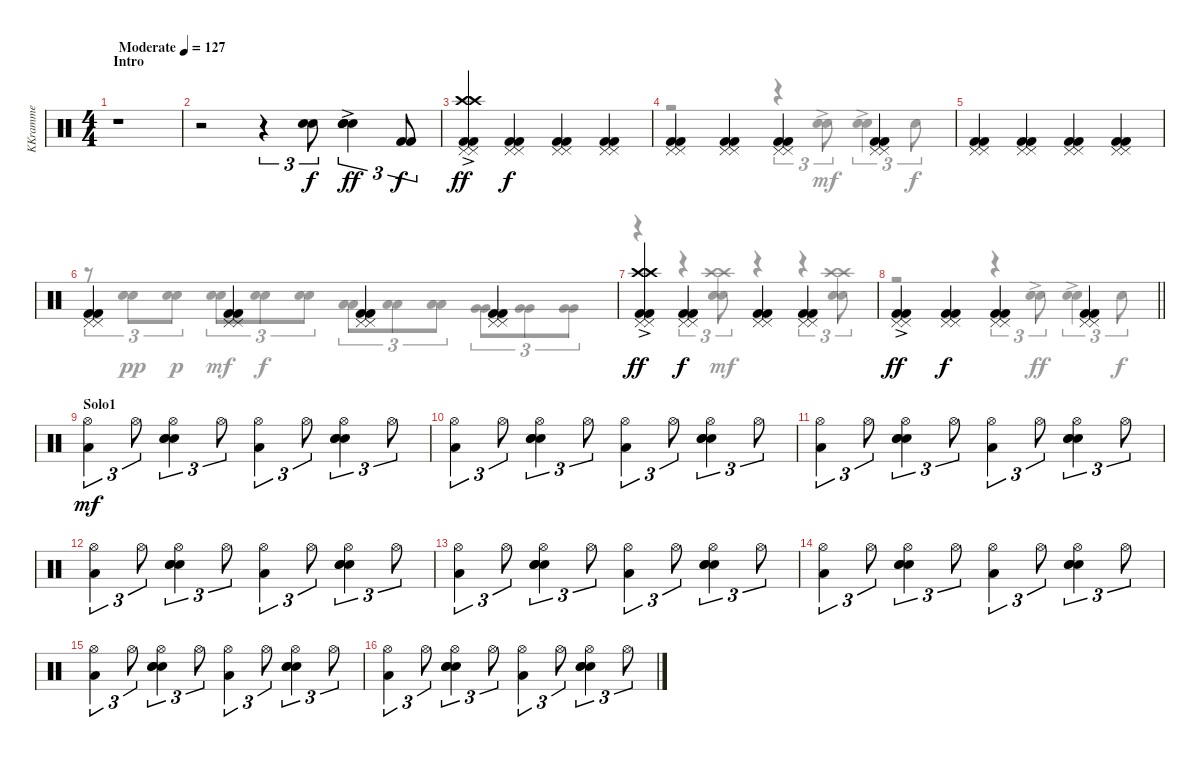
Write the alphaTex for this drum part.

\track ("KKramme" "KKramme") {instrument percussion}
\staff {score}
\articulation defaults
\voice
\ts (4 4)
\section ("" "Intro")
\tempo (127 "Moderate")
\clef neutral
\ks c
r.1{dy f} |
r.2 r.4{tu (3 2)} ("Snare (hit) 2" "Snare (hit) 2").8{tu (3 2)} ("Snare (hit) 2"{ac} "Snare (hit) 2"{ac} "Snare (hit) 2"{ac} "Snare (hit) 2"{ac}).4{tu (3 2) dy ff} ("Kick (hit) 2" "Kick (hit) 2").8{tu (3 2) dy f} |
("Crash high (hit)"{ac} "Crash high (hit)"{ac} "Pedal Hi-Hat (hit)"{ac} "Pedal Hi-Hat (hit)"{ac} "Kick (hit) 2"{ac} "Kick (hit) 2"{ac}).4{dy ff} ("Pedal Hi-Hat (hit)" "Pedal Hi-Hat (hit)" "Kick (hit) 2" "Kick (hit) 2").4{dy f} ("Pedal Hi-Hat (hit)" "Pedal Hi-Hat (hit)" "Kick (hit) 2" "Kick (hit) 2").4 ("Pedal Hi-Hat (hit)" "Pedal Hi-Hat (hit)" "Kick (hit) 2" "Kick (hit) 2").4 |
("Pedal Hi-Hat (hit)" "Pedal Hi-Hat (hit)" "Kick (hit) 2" "Kick (hit) 2").4 ("Pedal Hi-Hat (hit)" "Pedal Hi-Hat (hit)" "Kick (hit) 2" "Kick (hit) 2").4 ("Pedal Hi-Hat (hit)" "Pedal Hi-Hat (hit)" "Kick (hit) 2" "Kick (hit) 2").4 ("Pedal Hi-Hat (hit)" "Pedal Hi-Hat (hit)" "Kick (hit) 2" "Kick (hit) 2").4 |
("Pedal Hi-Hat (hit)" "Pedal Hi-Hat (hit)" "Kick (hit) 2" "Kick (hit) 2").4 ("Pedal Hi-Hat (hit)" "Pedal Hi-Hat (hit)" "Kick (hit) 2" "Kick (hit) 2").4 ("Pedal Hi-Hat (hit)" "Pedal Hi-Hat (hit)" "Kick (hit) 2" "Kick (hit) 2").4 ("Pedal Hi-Hat (hit)" "Pedal Hi-Hat (hit)" "Kick (hit) 2" "Kick (hit) 2").4 |
("Pedal Hi-Hat (hit)" "Pedal Hi-Hat (hit)" "Kick (hit) 2" "Kick (hit) 2").4 ("Pedal Hi-Hat (hit)" "Pedal Hi-Hat (hit)" "Kick (hit) 2" "Kick (hit) 2").4 ("Pedal Hi-Hat (hit)" "Pedal Hi-Hat (hit)" "Kick (hit) 2" "Kick (hit) 2").4 ("Pedal Hi-Hat (hit)" "Pedal Hi-Hat (hit)" "Kick (hit) 2" "Kick (hit) 2").4 |
("Crash high (hit)"{ac} "Crash high (hit)"{ac} "Pedal Hi-Hat (hit)"{ac} "Pedal Hi-Hat (hit)"{ac} "Kick (hit) 2"{ac} "Kick (hit) 2"{ac}).4{dy ff} ("Pedal Hi-Hat (hit)" "Pedal Hi-Hat (hit)" "Kick (hit) 2" "Kick (hit) 2").4{dy f} ("Pedal Hi-Hat (hit)" "Pedal Hi-Hat (hit)" "Kick (hit) 2" "Kick (hit) 2").4 ("Pedal Hi-Hat (hit)" "Pedal Hi-Hat (hit)" "Kick (hit) 2" "Kick (hit) 2").4 |
\barLineRight lightlight
("Pedal Hi-Hat (hit)"{ac} "Pedal Hi-Hat (hit)"{ac} "Kick (hit) 2"{ac} "Kick (hit) 2"{ac}).4{dy ff} ("Pedal Hi-Hat (hit)" "Pedal Hi-Hat (hit)" "Kick (hit) 2" "Kick (hit) 2").4{dy f} ("Pedal Hi-Hat (hit)" "Pedal Hi-Hat (hit)" "Kick (hit) 2" "Kick (hit) 2").4 ("Pedal Hi-Hat (hit)" "Pedal Hi-Hat (hit)" "Kick (hit) 2" "Kick (hit) 2").4 |
\section ("" "Solo1")
("Low Tom (hit)" "Hi-Hat (open)").4{tu (3 2) dy mf} "Hi-Hat (open)".8{tu (3 2)} ("Snare (hit) 2" "Snare (hit) 2" "Snare (hit) 2" "Hi-Hat (open)").4{tu (3 2)} "Hi-Hat (open)".8{tu (3 2)} ("Low Tom (hit)" "Hi-Hat (open)").4{tu (3 2)} "Hi-Hat (open)".8{tu (3 2)} ("Snare (hit) 2" "Snare (hit) 2" "Snare (hit) 2" "Hi-Hat (open)").4{tu (3 2)} "Hi-Hat (open)".8{tu (3 2)} |
("Low Tom (hit)" "Hi-Hat (open)").4{tu (3 2)} "Hi-Hat (open)".8{tu (3 2)} ("Snare (hit) 2" "Snare (hit) 2" "Snare (hit) 2" "Hi-Hat (open)").4{tu (3 2)} "Hi-Hat (open)".8{tu (3 2)} ("Low Tom (hit)" "Hi-Hat (open)").4{tu (3 2)} "Hi-Hat (open)".8{tu (3 2)} ("Snare (hit) 2" "Snare (hit) 2" "Snare (hit) 2" "Hi-Hat (open)").4{tu (3 2)} "Hi-Hat (open)".8{tu (3 2)} |
("Low Tom (hit)" "Hi-Hat (open)").4{tu (3 2)} "Hi-Hat (open)".8{tu (3 2)} ("Snare (hit) 2" "Snare (hit) 2" "Snare (hit) 2" "Hi-Hat (open)").4{tu (3 2)} "Hi-Hat (open)".8{tu (3 2)} ("Low Tom (hit)" "Hi-Hat (open)").4{tu (3 2)} "Hi-Hat (open)".8{tu (3 2)} ("Snare (hit) 2" "Snare (hit) 2" "Snare (hit) 2" "Hi-Hat (open)").4{tu (3 2)} "Hi-Hat (open)".8{tu (3 2)} |
("Low Tom (hit)" "Hi-Hat (open)").4{tu (3 2)} "Hi-Hat (open)".8{tu (3 2)} ("Snare (hit) 2" "Snare (hit) 2" "Snare (hit) 2" "Hi-Hat (open)").4{tu (3 2)} "Hi-Hat (open)".8{tu (3 2)} ("Low Tom (hit)" "Hi-Hat (open)").4{tu (3 2)} "Hi-Hat (open)".8{tu (3 2)} ("Snare (hit) 2" "Snare (hit) 2" "Snare (hit) 2" "Hi-Hat (open)").4{tu (3 2)} "Hi-Hat (open)".8{tu (3 2)} |
("Low Tom (hit)" "Hi-Hat (open)").4{tu (3 2)} "Hi-Hat (open)".8{tu (3 2)} ("Snare (hit) 2" "Snare (hit) 2" "Snare (hit) 2" "Hi-Hat (open)").4{tu (3 2)} "Hi-Hat (open)".8{tu (3 2)} ("Low Tom (hit)" "Hi-Hat (open)").4{tu (3 2)} "Hi-Hat (open)".8{tu (3 2)} ("Snare (hit) 2" "Snare (hit) 2" "Snare (hit) 2" "Hi-Hat (open)").4{tu (3 2)} "Hi-Hat (open)".8{tu (3 2)} |
("Low Tom (hit)" "Hi-Hat (open)").4{tu (3 2)} "Hi-Hat (open)".8{tu (3 2)} ("Snare (hit) 2" "Snare (hit) 2" "Snare (hit) 2" "Hi-Hat (open)").4{tu (3 2)} "Hi-Hat (open)".8{tu (3 2)} ("Low Tom (hit)" "Hi-Hat (open)").4{tu (3 2)} "Hi-Hat (open)".8{tu (3 2)} ("Snare (hit) 2" "Snare (hit) 2" "Snare (hit) 2" "Hi-Hat (open)").4{tu (3 2)} "Hi-Hat (open)".8{tu (3 2)} |
("Low Tom (hit)" "Hi-Hat (open)").4{tu (3 2)} "Hi-Hat (open)".8{tu (3 2)} ("Snare (hit) 2" "Snare (hit) 2" "Snare (hit) 2" "Hi-Hat (open)").4{tu (3 2)} "Hi-Hat (open)".8{tu (3 2)} ("Low Tom (hit)" "Hi-Hat (open)").4{tu (3 2)} "Hi-Hat (open)".8{tu (3 2)} ("Snare (hit) 2" "Snare (hit) 2" "Snare (hit) 2" "Hi-Hat (open)").4{tu (3 2)} "Hi-Hat (open)".8{tu (3 2)} |
("Low Tom (hit)" "Hi-Hat (open)").4{tu (3 2)} "Hi-Hat (open)".8{tu (3 2)} ("Snare (hit) 2" "Snare (hit) 2" "Snare (hit) 2" "Hi-Hat (open)").4{tu (3 2)} "Hi-Hat (open)".8{tu (3 2)} ("Low Tom (hit)" "Hi-Hat (open)").4{tu (3 2)} "Hi-Hat (open)".8{tu (3 2)} ("Snare (hit) 2" "Snare (hit) 2" "Snare (hit) 2" "Hi-Hat (open)").4{tu (3 2)} "Hi-Hat (open)".8{tu (3 2)}
\voice
\clef neutral
\ottava regular
\simile none
\ks c
|
|
|
r.2 r.4{tu (3 2)} ("Snare (hit) 2"{ac} "Snare (hit) 2"{ac}).8{tu (3 2)} ("Snare (hit) 2"{ac} "Snare (hit) 2"{ac}).4{tu (3 2)} "Snare (hit) 2".8{tu (3 2) dy f} |
|
r.8{tu (3 2)} ("Snare (hit) 2" "Snare (hit) 2").8{tu (3 2) dy pp} ("Snare (hit) 2" "Snare (hit) 2").8{tu (3 2) dy p} ("Snare (hit) 2" "Snare (hit) 2").8{tu (3 2) dy mf} ("Snare (hit) 2" "Snare (hit) 2").8{tu (3 2) dy f} ("Snare (hit) 2" "Snare (hit) 2").8{tu (3 2)} ("Low Tom (hit)" "Low Tom (hit)").8{tu (3 2)} ("Low Tom (hit)" "Low Tom (hit)").8{tu (3 2)} ("Low Tom (hit)" "Low Tom (hit)").8{tu (3 2)} ("Very Low Tom (hit)" "Very Low Tom (hit)").8{tu (3 2)} ("Very Low Tom (hit)" "Very Low Tom (hit)").8{tu (3 2)} ("Very Low Tom (hit)" "Very Low Tom (hit)").8{tu (3 2)} |
r.4 r.4{tu (3 2)} ("Crash high (hit)" "Crash high (hit)" "Snare (hit) 2" "Snare (hit) 2").8{tu (3 2) dy mf} r.4 r.4{tu (3 2)} ("Crash high (hit)" "Crash high (hit)" "Snare (hit) 2" "Snare (hit) 2").8{tu (3 2)} |
\barLineRight lightlight
r.2 r.4{tu (3 2)} ("Snare (hit) 2"{ac} "Snare (hit) 2"{ac}).8{tu (3 2) dy ff} ("Snare (hit) 2"{ac} "Snare (hit) 2"{ac}).4{tu (3 2)} "Snare (hit) 2".8{tu (3 2) dy f} |
|
|
|
|
|
|
|
